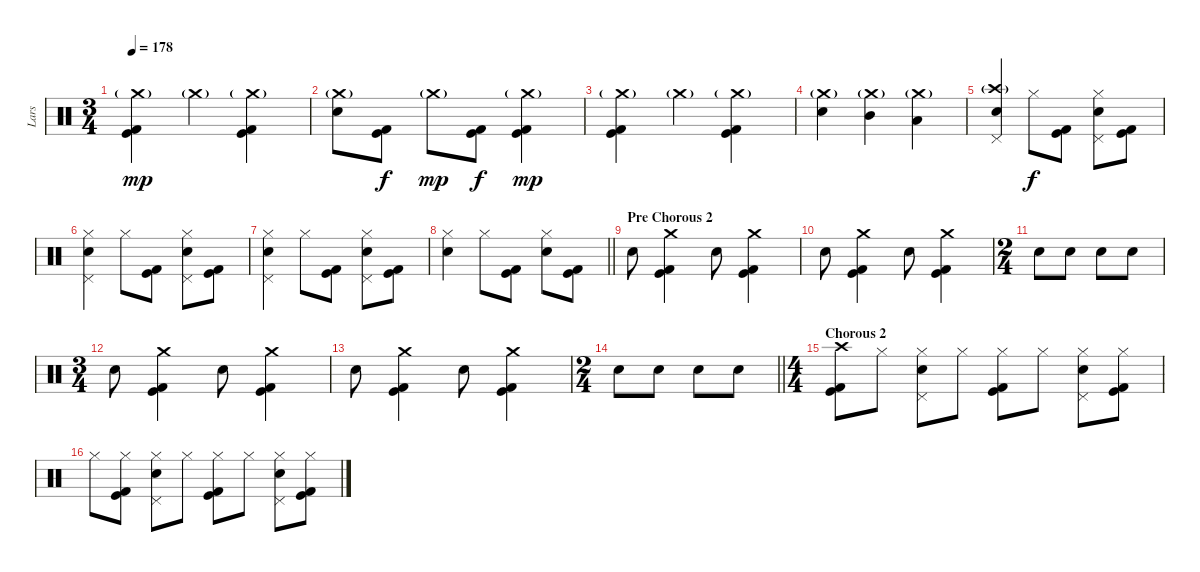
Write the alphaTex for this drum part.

\track ("Lars" "Lars") {instrument percussion}
\staff {score}
\articulation defaults
\ts (3 4)
\tempo 178
\clef neutral
\ks c
("Crash medium (hit)"{g} "Kick (hit)" "Kick (hit) 2").4{dy mp} "Crash medium (hit)"{g}.4 ("Crash medium (hit)"{g} "Kick (hit)" "Kick (hit) 2").4 |
("Crash medium (hit)"{g} "Electric Snare (hit)").8 ("Kick (hit)" "Kick (hit) 2").8{dy f} "Crash medium (hit)"{g}.8{dy mp} ("Kick (hit)" "Kick (hit) 2").8{dy f} ("Crash medium (hit)"{g} "Kick (hit)" "Kick (hit) 2").4{dy mp} |
("Crash medium (hit)"{g} "Kick (hit)" "Kick (hit) 2").4 "Crash medium (hit)"{g}.4 ("Crash medium (hit)"{g} "Kick (hit)" "Kick (hit) 2").4 |
("Crash medium (hit)"{g} "Electric Snare (hit)").4 ("Crash medium (hit)"{g} "Mid Tom (hit)").4 ("Crash medium (hit)"{g} "Low Tom (hit)").4 |
("Crash high (hit)"{g} "Pedal Hi-Hat (hit)" "Electric Snare (hit)").4 "Hi-Hat (closed)".8{dy f} ("Kick (hit)" "Kick (hit) 2").8 ("Hi-Hat (closed)" "Pedal Hi-Hat (hit)" "Electric Snare (hit)").8 ("Kick (hit)" "Kick (hit) 2").8 |
("Hi-Hat (closed)" "Pedal Hi-Hat (hit)" "Electric Snare (hit)").4 "Hi-Hat (closed)".8 ("Kick (hit)" "Kick (hit) 2").8 ("Hi-Hat (closed)" "Pedal Hi-Hat (hit)" "Electric Snare (hit)").8 ("Kick (hit)" "Kick (hit) 2").8 |
("Hi-Hat (closed)" "Pedal Hi-Hat (hit)" "Electric Snare (hit)").4 "Hi-Hat (closed)".8 ("Kick (hit)" "Kick (hit) 2").8 ("Hi-Hat (closed)" "Pedal Hi-Hat (hit)" "Electric Snare (hit)").8 ("Kick (hit)" "Kick (hit) 2").8 |
\barLineRight lightlight
("Hi-Hat (closed)" "Electric Snare (hit)").4 "Hi-Hat (closed)".8 ("Kick (hit)" "Kick (hit) 2").8 ("Hi-Hat (closed)" "Electric Snare (hit)").8 ("Kick (hit)" "Kick (hit) 2").8 |
\section ("" "Pre Chorous 2")
"Electric Snare (hit)".8 ("Crash medium (hit)" "Kick (hit)" "Kick (hit) 2").4 "Electric Snare (hit)".8 ("Crash medium (hit)" "Kick (hit)" "Kick (hit) 2").4 |
"Electric Snare (hit)".8 ("Crash medium (hit)" "Kick (hit)" "Kick (hit) 2").4 "Electric Snare (hit)".8 ("Crash medium (hit)" "Kick (hit)" "Kick (hit) 2").4 |
\ts (2 4)
"Electric Snare (hit)".8 "Electric Snare (hit)".8 "Electric Snare (hit)".8 "Electric Snare (hit)".8 |
\ts (3 4)
"Electric Snare (hit)".8 ("Crash medium (hit)" "Kick (hit)" "Kick (hit) 2").4 "Electric Snare (hit)".8 ("Crash medium (hit)" "Kick (hit)" "Kick (hit) 2").4 |
"Electric Snare (hit)".8 ("Crash medium (hit)" "Kick (hit)" "Kick (hit) 2").4 "Electric Snare (hit)".8 ("Crash medium (hit)" "Kick (hit)" "Kick (hit) 2").4 |
\ts (2 4)
\barLineRight lightlight "Electric Snare (hit)".8 "Electric Snare (hit)".8 "Electric Snare (hit)".8 "Electric Snare (hit)".8
|
\ts (4 4)
\section ("" "Chorous 2")
("Crash high (hit)" "Kick (hit)" "Kick (hit) 2").8 "Hi-Hat (closed)".8 ("Hi-Hat (closed)" "Pedal Hi-Hat (hit)" "Electric Snare (hit)").8 "Hi-Hat (closed)".8 ("Hi-Hat (closed)" "Kick (hit)" "Kick (hit) 2").8 "Hi-Hat (closed)".8 ("Hi-Hat (closed)" "Pedal Hi-Hat (hit)" "Electric Snare (hit)").8 ("Hi-Hat (closed)" "Kick (hit)" "Kick (hit) 2").8 |
"Hi-Hat (closed)".8 ("Hi-Hat (closed)" "Kick (hit)" "Kick (hit) 2").8 ("Hi-Hat (closed)" "Pedal Hi-Hat (hit)" "Electric Snare (hit)").8 "Hi-Hat (closed)".8 ("Hi-Hat (closed)" "Kick (hit)" "Kick (hit) 2").8 "Hi-Hat (closed)".8 ("Hi-Hat (closed)" "Pedal Hi-Hat (hit)" "Electric Snare (hit)").8 ("Hi-Hat (closed)" "Kick (hit)" "Kick (hit) 2").8
